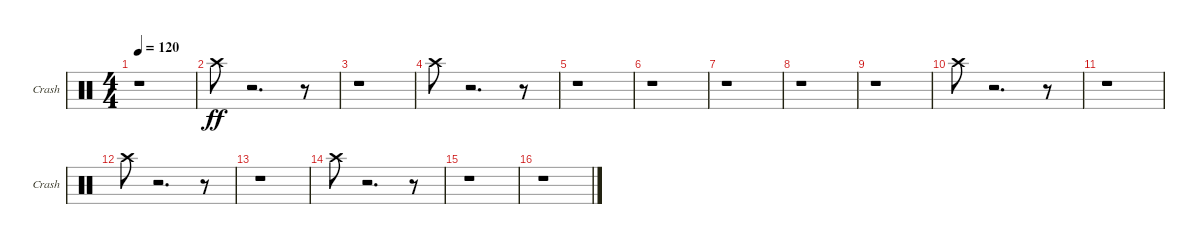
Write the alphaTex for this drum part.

\bracketExtendMode groupsimilarinstruments
\singleTrackTrackNamePolicy allsystems
\multiTrackTrackNamePolicy allsystems
\firstSystemTrackNameOrientation horizontal
\otherSystemsTrackNameOrientation horizontal
\track ("Cymbal" "Crash") {instrument percussion}
\staff {score}
\articulation defaults
\ts (4 4)
\tempo 120
\clef neutral
\scale
0.333333
\ks c
r.1{dy ff} |
\scale
0.333333 "Crash high (hit)".8 r.2{d} r.8 |
\scale
0.333333 r.1 |
\scale
0.333333 "Crash high (hit)".8 r.2{d} r.8 |
\scale
0.333333 r.1 |
\scale
0.333333 r.1 |
\scale
0.333333 r.1 |
\scale
0.333333 r.1 |
\scale
0.333333 r.1 |
\scale
0.333333 "Crash high (hit)".8 r.2{d} r.8 |
\scale
0.333333 r.1 |
\scale
0.333333 "Crash high (hit)".8 r.2{d} r.8 |
\scale
0.333333 r.1 |
\scale
0.333333 "Crash high (hit)".8 r.2{d} r.8 |
\scale
0.333333 r.1 |
\scale
0.333333 r.1
